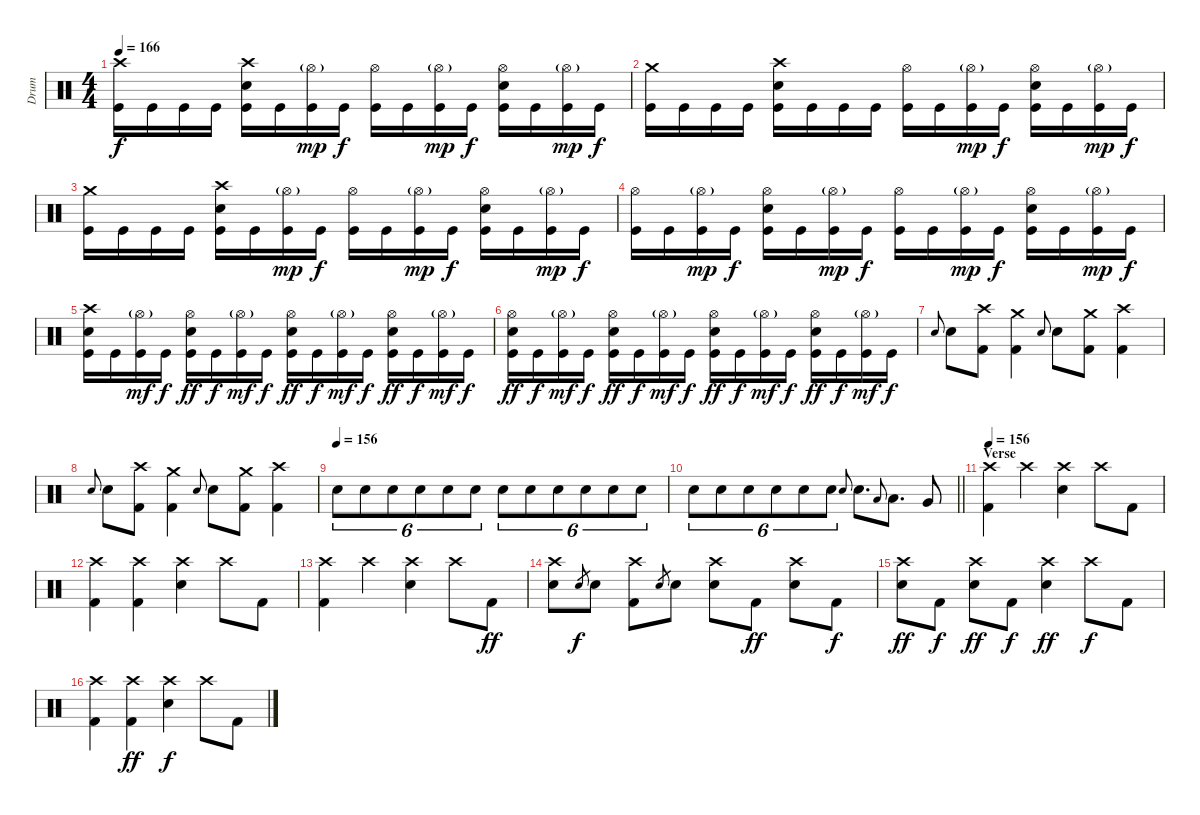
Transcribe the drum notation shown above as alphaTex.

\track ("Drum" "Drum") {instrument percussion}
\staff {score}
\articulation defaults
\ts (4 4)
\tempo 166
\clef neutral
\ks c
("Crash high (hit)" "Kick (hit)").16{dy f} "Kick (hit)".16 "Kick (hit)".16 "Kick (hit)".16 ("Crash high (hit)" "Snare (hit) 2" "Kick (hit)").16 "Kick (hit)".16 ("Hi-Hat (open)"{g} "Kick (hit)").16{dy mp} "Kick (hit)".16{dy f} ("Hi-Hat (open)" "Kick (hit)").16 "Kick (hit)".16 ("Hi-Hat (open)"{g} "Kick (hit)").16{dy mp} "Kick (hit)".16{dy f} ("Hi-Hat (open)" "Snare (hit) 2" "Kick (hit)").16 "Kick (hit)".16 ("Hi-Hat (open)"{g} "Kick (hit)").16{dy mp} "Kick (hit)".16{dy f} |
("Crash medium (hit)" "Kick (hit)").16 "Kick (hit)".16 "Kick (hit)".16 "Kick (hit)".16 ("Crash high (hit)" "Snare (hit) 2" "Kick (hit)").16 "Kick (hit)".16 "Kick (hit)".16 "Kick (hit)".16 ("Hi-Hat (open)" "Kick (hit)").16 "Kick (hit)".16 ("Hi-Hat (open)"{g} "Kick (hit)").16{dy mp} "Kick (hit)".16{dy f} ("Hi-Hat (open)" "Snare (hit) 2" "Kick (hit)").16 "Kick (hit)".16 ("Hi-Hat (open)"{g} "Kick (hit)").16{dy mp} "Kick (hit)".16{dy f} |
("Crash medium (hit)" "Kick (hit)").16 "Kick (hit)".16 "Kick (hit)".16 "Kick (hit)".16 ("Crash high (hit)" "Snare (hit) 2" "Kick (hit)").16 "Kick (hit)".16 ("Hi-Hat (open)"{g} "Kick (hit)").16{dy mp} "Kick (hit)".16{dy f} ("Hi-Hat (open)" "Kick (hit)").16 "Kick (hit)".16 ("Hi-Hat (open)"{g} "Kick (hit)").16{dy mp} "Kick (hit)".16{dy f} ("Hi-Hat (open)" "Snare (hit) 2" "Kick (hit)").16 "Kick (hit)".16 ("Hi-Hat (open)"{g} "Kick (hit)").16{dy mp} "Kick (hit)".16{dy f} |
("Hi-Hat (open)" "Kick (hit)").16 "Kick (hit)".16 ("Hi-Hat (open)"{g} "Kick (hit)").16{dy mp} "Kick (hit)".16{dy f} ("Hi-Hat (open)" "Snare (hit) 2" "Kick (hit)").16 "Kick (hit)".16 ("Hi-Hat (open)"{g} "Kick (hit)").16{dy mp} "Kick (hit)".16{dy f} ("Hi-Hat (open)" "Kick (hit)").16 "Kick (hit)".16 ("Hi-Hat (open)"{g} "Kick (hit)").16{dy mp} "Kick (hit)".16{dy f} ("Hi-Hat (open)" "Snare (hit) 2" "Kick (hit)").16 "Kick (hit)".16 ("Hi-Hat (open)"{g} "Kick (hit)").16{dy mp} "Kick (hit)".16{dy f} |
("Crash high (hit)" "Snare (hit) 2" "Kick (hit)").16 "Kick (hit)".16 ("Hi-Hat (open)"{g} "Kick (hit)").16{dy mf} "Kick (hit)".16{dy f} ("Hi-Hat (open)" "Snare (hit) 2" "Kick (hit)").16{dy ff} "Kick (hit)".16{dy f} ("Hi-Hat (open)"{g} "Kick (hit)").16{dy mf} "Kick (hit)".16{dy f} ("Hi-Hat (open)" "Snare (hit) 2" "Kick (hit)").16{dy ff} "Kick (hit)".16{dy f} ("Hi-Hat (open)"{g} "Kick (hit)").16{dy mf} "Kick (hit)".16{dy f} ("Hi-Hat (open)" "Snare (hit) 2" "Kick (hit)").16{dy ff} "Kick (hit)".16{dy f} ("Hi-Hat (open)"{g} "Kick (hit)").16{dy mf} "Kick (hit)".16{dy f} |
("Hi-Hat (open)" "Snare (hit) 2" "Kick (hit)").16{dy ff} "Kick (hit)".16{dy f} ("Hi-Hat (open)"{g} "Kick (hit)").16{dy mf} "Kick (hit)".16{dy f} ("Hi-Hat (open)" "Snare (hit) 2" "Kick (hit)").16{dy ff} "Kick (hit)".16{dy f} ("Hi-Hat (open)"{g} "Kick (hit)").16{dy mf} "Kick (hit)".16{dy f} ("Hi-Hat (open)" "Snare (hit) 2" "Kick (hit)").16{dy ff} "Kick (hit)".16{dy f} ("Hi-Hat (open)"{g} "Kick (hit)").16{dy mf} "Kick (hit)".16{dy f} ("Hi-Hat (open)" "Snare (hit) 2" "Kick (hit)").16{dy ff} "Kick (hit)".16{dy f} ("Hi-Hat (open)"{g} "Kick (hit)").16{dy mf} "Kick (hit)".16{dy f} |
"Snare (hit) 2".8{gr onbeat} "Snare (hit) 2".8 ("Crash high (hit)" "Kick (hit) 2").8 ("Crash medium (hit)" "Kick (hit) 2").4 "Snare (hit) 2".8{gr onbeat} "Snare (hit) 2".8 ("Crash medium (hit)" "Kick (hit) 2").8 ("Crash high (hit)" "Kick (hit) 2").4 |
"Snare (hit) 2".8{gr onbeat} "Snare (hit) 2".8 ("Crash high (hit)" "Kick (hit) 2").8 ("Crash medium (hit)" "Kick (hit) 2").4 "Snare (hit) 2".8{gr onbeat} "Snare (hit) 2".8 ("Crash medium (hit)" "Kick (hit) 2").8 ("Crash high (hit)" "Kick (hit) 2").4 |
\tempo (156)
"Electric Snare (hit)".8{tu (6 4)} "Electric Snare (hit)".8{tu (6 4)} "Electric Snare (hit)".8{tu (6 4)} "Electric Snare (hit)".8{tu (6 4)} "Electric Snare (hit)".8{tu (6 4)} "Electric Snare (hit)".8{tu (6 4)} "Electric Snare (hit)".8{tu (6 4)} "Electric Snare (hit)".8{tu (6 4)} "Electric Snare (hit)".8{tu (6 4)} "Electric Snare (hit)".8{tu (6 4)} "Electric Snare (hit)".8{tu (6 4)} "Electric Snare (hit)".8{tu (6 4)} |
\barLineRight lightlight "Electric Snare (hit)".8{tu (6 4)} "Electric Snare (hit)".8{tu (6 4)} "Electric Snare (hit)".8{tu (6 4)} "Electric Snare (hit)".8{tu (6 4)} "Electric Snare (hit)".8{tu (6 4)} "Electric Snare (hit)".8{tu (6 4)} "Electric Snare (hit)".8{gr onbeat} "Electric Snare (hit)".8{d} "Low Tom (hit)".8{gr onbeat} "Low Tom (hit)".8{d} "Very Low Tom (hit)".8
|
\section ("" "Verse")
\tempo 156
("Crash high (hit)" "Kick (hit) 2").4 "Crash high (hit)".4 ("Crash high (hit)" "Snare (hit) 2").4 "Crash high (hit)".8 "Kick (hit) 2".8 |
("Crash high (hit)" "Kick (hit) 2").4 ("Crash high (hit)" "Kick (hit) 2").4 ("Crash high (hit)" "Snare (hit) 2").4 "Crash high (hit)".8 "Kick (hit) 2".8 |
("Crash high (hit)" "Kick (hit) 2").4 "Crash high (hit)".4 ("Crash high (hit)" "Snare (hit) 2").4 "Crash high (hit)".8 "Kick (hit) 2".8{dy ff} |
("Crash high (hit)" "Snare (hit) 2").8 "Snare (hit) 2".8{gr dy f} "Snare (hit) 2".8 ("Crash high (hit)" "Kick (hit) 2").8 "Snare (hit) 2".8{gr} "Snare (hit) 2".8 ("Crash high (hit)" "Snare (hit) 2").8 "Kick (hit) 2".8{dy ff} ("Crash high (hit)" "Snare (hit) 2").8 "Kick (hit) 2".8{dy f} |
("Crash high (hit)" "Snare (hit) 2").8{dy ff} "Kick (hit) 2".8{dy f} ("Crash high (hit)" "Snare (hit) 2").8{dy ff} "Kick (hit) 2".8{dy f} ("Crash high (hit)" "Snare (hit) 2").4{dy ff} "Crash high (hit)".8{dy f} "Kick (hit) 2".8 |
("Crash high (hit)" "Kick (hit) 2").4 ("Crash high (hit)" "Kick (hit) 2").4{dy ff} ("Crash high (hit)" "Snare (hit) 2").4{dy f} "Crash high (hit)".8 "Kick (hit) 2".8
